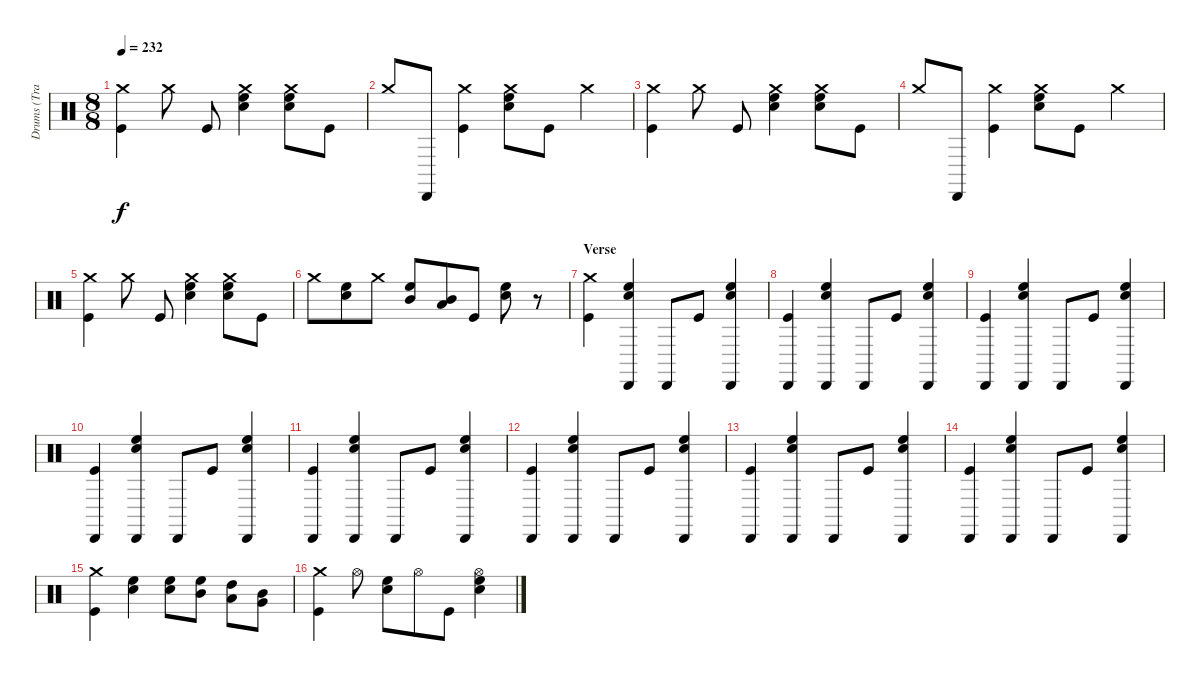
\track ("Drums (Travis)" "Drums (Tra") {instrument percussion}
\staff {score}
\articulation defaults
\ts (8 8)
\tempo 232
\clef neutral
\ks c
("Kick (hit)" "Crash medium (hit)").4{dy f} "Crash medium (hit)".8 "Kick (hit)".8 ("High Floor Tom (hit)" "Electric Snare (hit)" "Crash medium (hit)").4 ("Electric Snare (hit)" "High Floor Tom (hit)" "Crash medium (hit)").8 "Kick (hit)".8 |
"Crash medium (hit)".8 "Cabasa (hit)".8 ("Kick (hit)" "Crash medium (hit)").4 ("High Floor Tom (hit)" "Electric Snare (hit)" "Crash medium (hit)").8 "Kick (hit)".8 "Crash medium (hit)".4 |
("Kick (hit)" "Crash medium (hit)").4 "Crash medium (hit)".8 "Kick (hit)".8 ("High Floor Tom (hit)" "Electric Snare (hit)" "Crash medium (hit)").4 ("Electric Snare (hit)" "High Floor Tom (hit)" "Crash medium (hit)").8 "Kick (hit)".8 |
"Crash medium (hit)".8 "Cabasa (hit)".8 ("Kick (hit)" "Crash medium (hit)").4 ("High Floor Tom (hit)" "Electric Snare (hit)" "Crash medium (hit)").8 "Kick (hit)".8 "Crash medium (hit)".4 |
("Kick (hit)" "Crash medium (hit)").4 "Crash medium (hit)".8 "Kick (hit)".8 ("High Floor Tom (hit)" "Electric Snare (hit)" "Crash medium (hit)").4 ("Electric Snare (hit)" "High Floor Tom (hit)" "Crash medium (hit)").8 "Kick (hit)".8 |
"Crash medium (hit)".8 ("High Floor Tom (hit)" "Electric Snare (hit)").8 "Crash medium (hit)".8 ("High Floor Tom (hit)" "Mid Tom (hit)").8 ("Mid Tom (hit)" "Low Tom (hit)").8 "Kick (hit)".8 ("Electric Snare (hit)" "High Floor Tom (hit)").8 r.8 |
\section ("" "Verse")
("Crash medium (hit)" "Kick (hit)").4 ("Electric Snare (hit)" "High Floor Tom (hit)" "Cabasa (hit)").4 "Cabasa (hit)".8 "Kick (hit)".8 ("High Floor Tom (hit)" "Electric Snare (hit)" "Cabasa (hit)").4 |
("Kick (hit)" "Cabasa (hit)").4 ("Electric Snare (hit)" "High Floor Tom (hit)" "Cabasa (hit)").4 "Cabasa (hit)".8 "Kick (hit)".8 ("High Floor Tom (hit)" "Electric Snare (hit)" "Cabasa (hit)").4 |
("Kick (hit)" "Cabasa (hit)").4 ("Electric Snare (hit)" "High Floor Tom (hit)" "Cabasa (hit)").4 "Cabasa (hit)".8 "Kick (hit)".8 ("High Floor Tom (hit)" "Electric Snare (hit)" "Cabasa (hit)").4 |
("Kick (hit)" "Cabasa (hit)").4 ("Electric Snare (hit)" "High Floor Tom (hit)" "Cabasa (hit)").4 "Cabasa (hit)".8 "Kick (hit)".8 ("High Floor Tom (hit)" "Electric Snare (hit)" "Cabasa (hit)").4 |
("Kick (hit)" "Cabasa (hit)").4 ("Electric Snare (hit)" "High Floor Tom (hit)" "Cabasa (hit)").4 "Cabasa (hit)".8 "Kick (hit)".8 ("High Floor Tom (hit)" "Electric Snare (hit)" "Cabasa (hit)").4 |
("Kick (hit)" "Cabasa (hit)").4 ("Electric Snare (hit)" "High Floor Tom (hit)" "Cabasa (hit)").4 "Cabasa (hit)".8 "Kick (hit)".8 ("High Floor Tom (hit)" "Electric Snare (hit)" "Cabasa (hit)").4 |
("Kick (hit)" "Cabasa (hit)").4 ("Electric Snare (hit)" "High Floor Tom (hit)" "Cabasa (hit)").4 "Cabasa (hit)".8 "Kick (hit)".8 ("High Floor Tom (hit)" "Electric Snare (hit)" "Cabasa (hit)").4 |
("Kick (hit)" "Cabasa (hit)").4 ("Electric Snare (hit)" "High Floor Tom (hit)" "Cabasa (hit)").4 "Cabasa (hit)".8 "Kick (hit)".8 ("High Floor Tom (hit)" "Electric Snare (hit)" "Cabasa (hit)").4 |
("Crash medium (hit)" "Kick (hit)").4 ("High Floor Tom (hit)" "Electric Snare (hit)").4 ("Electric Snare (hit)" "High Floor Tom (hit)").8 ("Mid Tom (hit)" "High Floor Tom (hit)").8 ("High Tom (hit)" "Low Tom (hit)").8 ("Very Low Tom (hit)" "Mid Tom (hit)").8 |
("Kick (hit)" "Crash medium (hit)").4 "Hi-Hat (open)".8 ("High Floor Tom (hit)" "Electric Snare (hit)").8 "Hi-Hat (open)".8 "Kick (hit)".8 ("High Floor Tom (hit)" "Electric Snare (hit)" "Hi-Hat (open)").4
